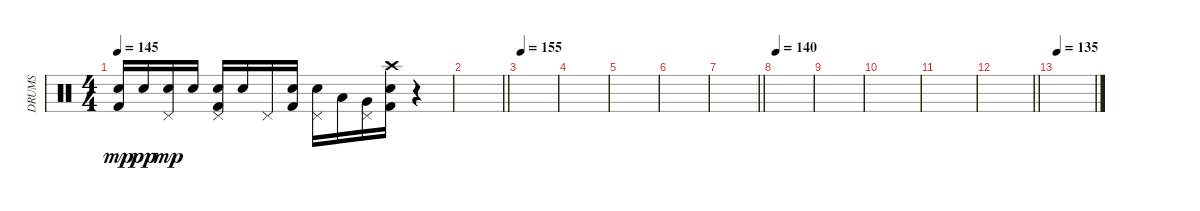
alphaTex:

\track ("DRUMS" "DRUMS") {instrument percussion}
\staff {score}
\articulation defaults
\ts (4 4)
\tempo 145
\clef neutral
\ks c
("Kick (hit) 2" "Electric Snare (hit)").16{dy mp} "Electric Snare (hit)".16{dy pp} ("Pedal Hi-Hat (hit)" "Electric Snare (hit)").16{dy mp} "Electric Snare (hit)".16 ("Pedal Hi-Hat (hit)" "Kick (hit) 2" "Electric Snare (hit)").16 "Electric Snare (hit)".16 "Pedal Hi-Hat (hit)".16 ("Kick (hit) 2" "Electric Snare (hit)").16 ("Pedal Hi-Hat (hit)" "Electric Snare (hit)").16 "Low Tom (hit)".16 ("Pedal Hi-Hat (hit)" "Very Low Tom (hit)").16 ("Kick (hit) 2" "Electric Snare (hit)" "Crash high (hit)").16 r.4 |
\barLineRight lightlight
|
\section ("" "")
\tempo 155
|
|
|
|
\barLineRight lightlight
|
\section ("" "")
\tempo 140
|
|
|
|
\barLineRight lightlight
|
\section ("" "")
\tempo 135
